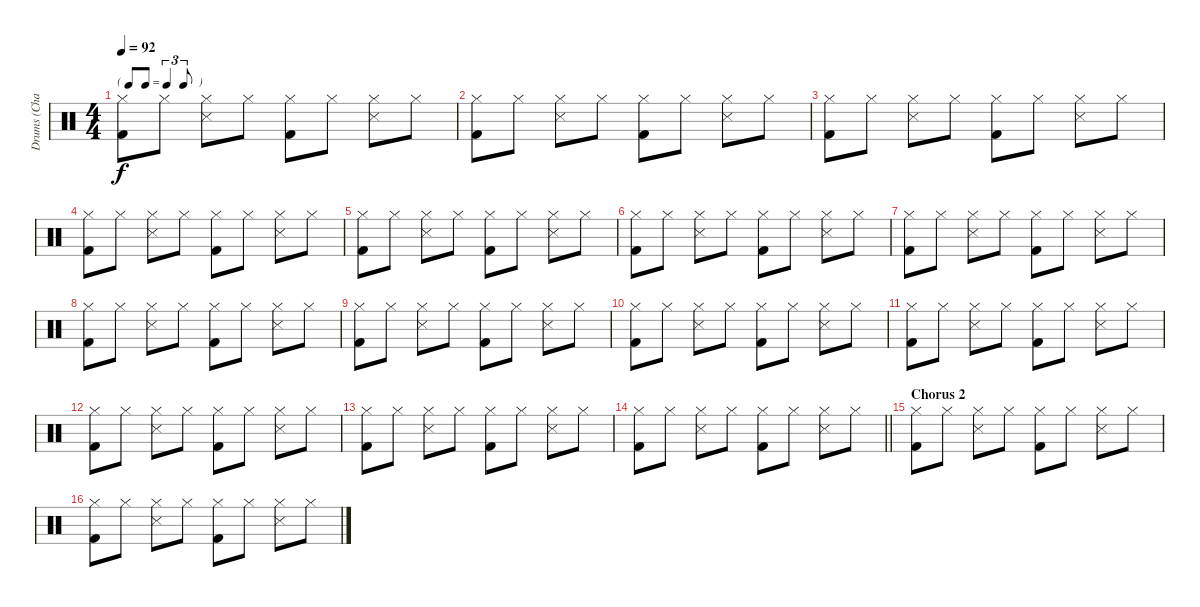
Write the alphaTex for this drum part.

\track ("Drums (Charlie)" "Drums (Cha") {instrument percussion}
\staff {score}
\articulation defaults
\ts (4 4)
\tf triplet8th
\tempo 92
\clef neutral
\ks c
("Hi-Hat (closed)" "Kick (hit) 2").8{dy f} "Hi-Hat (closed)".8 ("Hi-Hat (closed)" "Snare (side stick) 3").8 "Hi-Hat (closed)".8 ("Hi-Hat (closed)" "Kick (hit) 2").8 "Hi-Hat (closed)".8 ("Hi-Hat (closed)" "Snare (side stick) 3").8 "Hi-Hat (closed)".8 |
("Hi-Hat (closed)" "Kick (hit) 2").8 "Hi-Hat (closed)".8 ("Hi-Hat (closed)" "Snare (side stick) 3").8 "Hi-Hat (closed)".8 ("Hi-Hat (closed)" "Kick (hit) 2").8 "Hi-Hat (closed)".8 ("Hi-Hat (closed)" "Snare (side stick) 3").8 "Hi-Hat (closed)".8 |
("Hi-Hat (closed)" "Kick (hit) 2").8 "Hi-Hat (closed)".8 ("Hi-Hat (closed)" "Snare (side stick) 3").8 "Hi-Hat (closed)".8 ("Hi-Hat (closed)" "Kick (hit) 2").8 "Hi-Hat (closed)".8 ("Hi-Hat (closed)" "Snare (side stick) 3").8 "Hi-Hat (closed)".8 |
("Hi-Hat (closed)" "Kick (hit) 2").8 "Hi-Hat (closed)".8 ("Hi-Hat (closed)" "Snare (side stick) 3").8 "Hi-Hat (closed)".8 ("Hi-Hat (closed)" "Kick (hit) 2").8 "Hi-Hat (closed)".8 ("Hi-Hat (closed)" "Snare (side stick) 3").8 "Hi-Hat (closed)".8 |
("Hi-Hat (closed)" "Kick (hit) 2").8 "Hi-Hat (closed)".8 ("Hi-Hat (closed)" "Snare (side stick) 3").8 "Hi-Hat (closed)".8 ("Hi-Hat (closed)" "Kick (hit) 2").8 "Hi-Hat (closed)".8 ("Hi-Hat (closed)" "Snare (side stick) 3").8 "Hi-Hat (closed)".8 |
("Hi-Hat (closed)" "Kick (hit) 2").8 "Hi-Hat (closed)".8 ("Hi-Hat (closed)" "Snare (side stick) 3").8 "Hi-Hat (closed)".8 ("Hi-Hat (closed)" "Kick (hit) 2").8 "Hi-Hat (closed)".8 ("Hi-Hat (closed)" "Snare (side stick) 3").8 "Hi-Hat (closed)".8 |
("Hi-Hat (closed)" "Kick (hit) 2").8 "Hi-Hat (closed)".8 ("Hi-Hat (closed)" "Snare (side stick) 3").8 "Hi-Hat (closed)".8 ("Hi-Hat (closed)" "Kick (hit) 2").8 "Hi-Hat (closed)".8 ("Hi-Hat (closed)" "Snare (side stick) 3").8 "Hi-Hat (closed)".8 |
("Hi-Hat (closed)" "Kick (hit) 2").8 "Hi-Hat (closed)".8 ("Hi-Hat (closed)" "Snare (side stick) 3").8 "Hi-Hat (closed)".8 ("Hi-Hat (closed)" "Kick (hit) 2").8 "Hi-Hat (closed)".8 ("Hi-Hat (closed)" "Snare (side stick) 3").8 "Hi-Hat (closed)".8 |
("Hi-Hat (closed)" "Kick (hit) 2").8 "Hi-Hat (closed)".8 ("Hi-Hat (closed)" "Snare (side stick) 3").8 "Hi-Hat (closed)".8 ("Hi-Hat (closed)" "Kick (hit) 2").8 "Hi-Hat (closed)".8 ("Hi-Hat (closed)" "Snare (side stick) 3").8 "Hi-Hat (closed)".8 |
("Hi-Hat (closed)" "Kick (hit) 2").8 "Hi-Hat (closed)".8 ("Hi-Hat (closed)" "Snare (side stick) 3").8 "Hi-Hat (closed)".8 ("Hi-Hat (closed)" "Kick (hit) 2").8 "Hi-Hat (closed)".8 ("Hi-Hat (closed)" "Snare (side stick) 3").8 "Hi-Hat (closed)".8 |
("Hi-Hat (closed)" "Kick (hit) 2").8 "Hi-Hat (closed)".8 ("Hi-Hat (closed)" "Snare (side stick) 3").8 "Hi-Hat (closed)".8 ("Hi-Hat (closed)" "Kick (hit) 2").8 "Hi-Hat (closed)".8 ("Hi-Hat (closed)" "Snare (side stick) 3").8 "Hi-Hat (closed)".8 |
("Hi-Hat (closed)" "Kick (hit) 2").8 "Hi-Hat (closed)".8 ("Hi-Hat (closed)" "Snare (side stick) 3").8 "Hi-Hat (closed)".8 ("Hi-Hat (closed)" "Kick (hit) 2").8 "Hi-Hat (closed)".8 ("Hi-Hat (closed)" "Snare (side stick) 3").8 "Hi-Hat (closed)".8 |
("Hi-Hat (closed)" "Kick (hit) 2").8 "Hi-Hat (closed)".8 ("Hi-Hat (closed)" "Snare (side stick) 3").8 "Hi-Hat (closed)".8 ("Hi-Hat (closed)" "Kick (hit) 2").8 "Hi-Hat (closed)".8 ("Hi-Hat (closed)" "Snare (side stick) 3").8 "Hi-Hat (closed)".8 |
\barLineRight lightlight
("Hi-Hat (closed)" "Kick (hit) 2").8 "Hi-Hat (closed)".8 ("Hi-Hat (closed)" "Snare (side stick) 3").8 "Hi-Hat (closed)".8 ("Hi-Hat (closed)" "Kick (hit) 2").8 "Hi-Hat (closed)".8 ("Hi-Hat (closed)" "Snare (side stick) 3").8 "Hi-Hat (closed)".8 |
\section ("" "Chorus 2")
("Hi-Hat (closed)" "Kick (hit) 2").8 "Hi-Hat (closed)".8 ("Hi-Hat (closed)" "Snare (side stick) 3").8 "Hi-Hat (closed)".8 ("Hi-Hat (closed)" "Kick (hit) 2").8 "Hi-Hat (closed)".8 ("Hi-Hat (closed)" "Snare (side stick) 3").8 "Hi-Hat (closed)".8 |
("Hi-Hat (closed)" "Kick (hit) 2").8 "Hi-Hat (closed)".8 ("Hi-Hat (closed)" "Snare (side stick) 3").8 "Hi-Hat (closed)".8 ("Hi-Hat (closed)" "Kick (hit) 2").8 "Hi-Hat (closed)".8 ("Hi-Hat (closed)" "Snare (side stick) 3").8 "Hi-Hat (closed)".8
